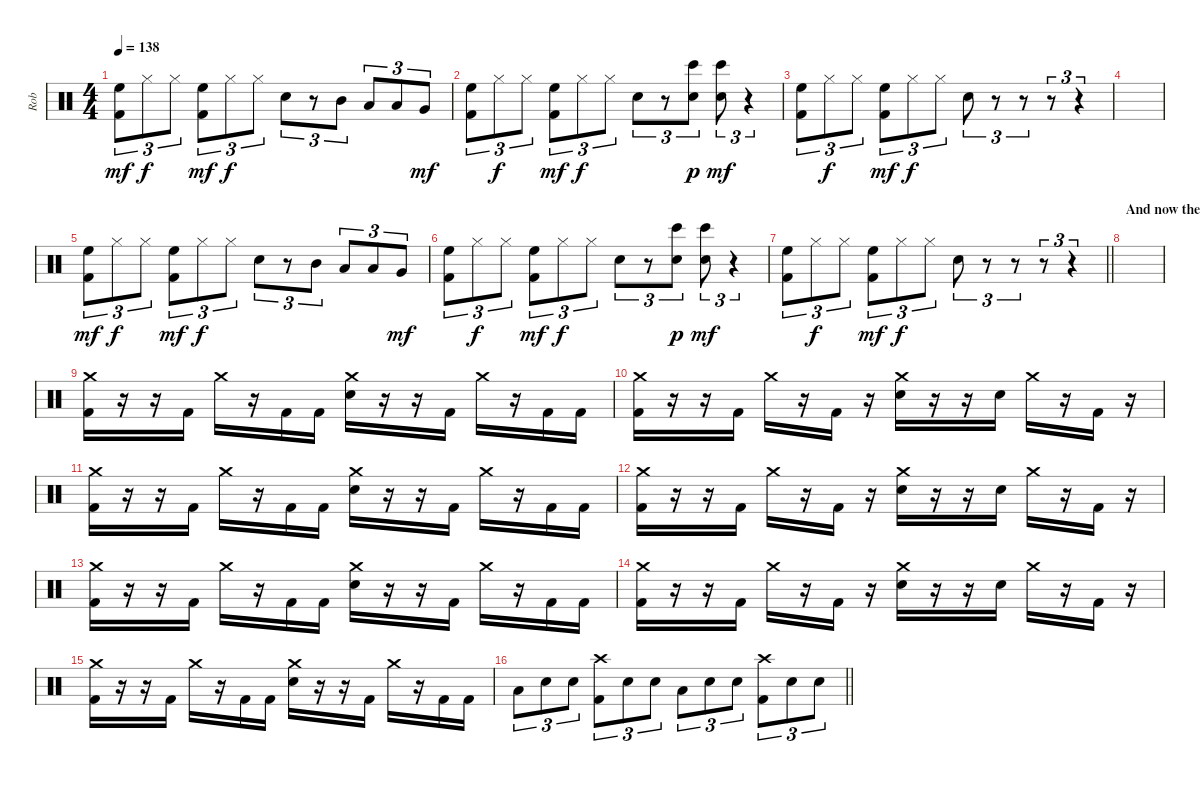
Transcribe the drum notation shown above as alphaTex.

\track ("Rob" "Rob") {instrument percussion}
\staff {score}
\articulation defaults
\ts (4 4)
\tempo 138
\clef neutral
\ks c
("High Floor Tom (hit)" "Kick (hit) 2").8{tu (3 2) dy mf} "Hi-Hat (closed)".8{tu (3 2) dy f} "Hi-Hat (closed)".8{tu (3 2)} ("High Floor Tom (hit)" "Kick (hit) 2").8{tu (3 2) dy mf} "Hi-Hat (closed)".8{tu (3 2) dy f} "Hi-Hat (closed)".8{tu (3 2)} "Electric Snare (hit)".8{tu (3 2)} r.8{tu (3 2)} "Mid Tom (hit)".8{tu (3 2)} "Low Tom (hit)".8{tu (3 2)} "Low Tom (hit)".8{tu (3 2)} "Very Low Tom (hit)".8{tu (3 2) dy mf} |
("High Floor Tom (hit)" "Kick (hit) 2").8{tu (3 2)} "Hi-Hat (closed)".8{tu (3 2) dy f} "Hi-Hat (closed)".8{tu (3 2)} ("High Floor Tom (hit)" "Kick (hit) 2").8{tu (3 2) dy mf} "Hi-Hat (closed)".8{tu (3 2) dy f} "Hi-Hat (closed)".8{tu (3 2)} "Electric Snare (hit)".8{tu (3 2)} r.8{tu (3 2)} ("Bongo High (hit)" "Electric Snare (hit)").8{tu (3 2) dy p} ("Bongo High (hit)" "Electric Snare (hit)").8{tu (3 2) dy mf} r.4{tu (3 2)} |
("High Floor Tom (hit)" "Kick (hit) 2").8{tu (3 2)} "Hi-Hat (closed)".8{tu (3 2) dy f} "Hi-Hat (closed)".8{tu (3 2)} ("High Floor Tom (hit)" "Kick (hit) 2").8{tu (3 2) dy mf} "Hi-Hat (closed)".8{tu (3 2) dy f} "Hi-Hat (closed)".8{tu (3 2)} "Electric Snare (hit)".8{tu (3 2)} r.8{tu (3 2)} r.8{tu (3 2)} r.8{tu (3 2)} r.4{tu (3 2)} |
|
("High Floor Tom (hit)" "Kick (hit) 2").8{tu (3 2) dy mf} "Hi-Hat (closed)".8{tu (3 2) dy f} "Hi-Hat (closed)".8{tu (3 2)} ("High Floor Tom (hit)" "Kick (hit) 2").8{tu (3 2) dy mf} "Hi-Hat (closed)".8{tu (3 2) dy f} "Hi-Hat (closed)".8{tu (3 2)} "Electric Snare (hit)".8{tu (3 2)} r.8{tu (3 2)} "Mid Tom (hit)".8{tu (3 2)} "Low Tom (hit)".8{tu (3 2)} "Low Tom (hit)".8{tu (3 2)} "Very Low Tom (hit)".8{tu (3 2) dy mf} |
("High Floor Tom (hit)" "Kick (hit) 2").8{tu (3 2)} "Hi-Hat (closed)".8{tu (3 2) dy f} "Hi-Hat (closed)".8{tu (3 2)} ("High Floor Tom (hit)" "Kick (hit) 2").8{tu (3 2) dy mf} "Hi-Hat (closed)".8{tu (3 2) dy f} "Hi-Hat (closed)".8{tu (3 2)} "Electric Snare (hit)".8{tu (3 2)} r.8{tu (3 2)} ("Bongo High (hit)" "Electric Snare (hit)").8{tu (3 2) dy p} ("Bongo High (hit)" "Electric Snare (hit)").8{tu (3 2) dy mf} r.4{tu (3 2)} |
\barLineRight lightlight
("High Floor Tom (hit)" "Kick (hit) 2").8{tu (3 2)} "Hi-Hat (closed)".8{tu (3 2) dy f} "Hi-Hat (closed)".8{tu (3 2)} ("High Floor Tom (hit)" "Kick (hit) 2").8{tu (3 2) dy mf} "Hi-Hat (closed)".8{tu (3 2) dy f} "Hi-Hat (closed)".8{tu (3 2)} "Electric Snare (hit)".8{tu (3 2)} r.8{tu (3 2)} r.8{tu (3 2)} r.8{tu (3 2)} r.4{tu (3 2)} |
\section ("" "And now the flood gates...")
|
("Crash medium (hit)" "Kick (hit) 2").16 r.16 r.16 "Kick (hit) 2".16 "Crash medium (hit)".16 r.16 "Kick (hit) 2".16 "Kick (hit) 2".16 ("Crash medium (hit)" "Electric Snare (hit)").16 r.16 r.16 "Kick (hit) 2".16 "Crash medium (hit)".16 r.16 "Kick (hit) 2".16 "Kick (hit) 2".16 |
("Crash medium (hit)" "Kick (hit) 2").16 r.16 r.16 "Kick (hit) 2".16 "Crash medium (hit)".16 r.16 "Kick (hit) 2".16 r.16 ("Crash medium (hit)" "Electric Snare (hit)").16 r.16 r.16 "Electric Snare (hit)".16 "Crash medium (hit)".16 r.16 "Kick (hit) 2".16 r.16 |
("Crash medium (hit)" "Kick (hit) 2").16 r.16 r.16 "Kick (hit) 2".16 "Crash medium (hit)".16 r.16 "Kick (hit) 2".16 "Kick (hit) 2".16 ("Crash medium (hit)" "Electric Snare (hit)").16 r.16 r.16 "Kick (hit) 2".16 "Crash medium (hit)".16 r.16 "Kick (hit) 2".16 "Kick (hit) 2".16 |
("Crash medium (hit)" "Kick (hit) 2").16 r.16 r.16 "Kick (hit) 2".16 "Crash medium (hit)".16 r.16 "Kick (hit) 2".16 r.16 ("Crash medium (hit)" "Electric Snare (hit)").16 r.16 r.16 "Electric Snare (hit)".16 "Crash medium (hit)".16 r.16 "Kick (hit) 2".16 r.16 |
("Crash medium (hit)" "Kick (hit) 2").16 r.16 r.16 "Kick (hit) 2".16 "Crash medium (hit)".16 r.16 "Kick (hit) 2".16 "Kick (hit) 2".16 ("Crash medium (hit)" "Electric Snare (hit)").16 r.16 r.16 "Kick (hit) 2".16 "Crash medium (hit)".16 r.16 "Kick (hit) 2".16 "Kick (hit) 2".16 |
("Crash medium (hit)" "Kick (hit) 2").16 r.16 r.16 "Kick (hit) 2".16 "Crash medium (hit)".16 r.16 "Kick (hit) 2".16 r.16 ("Crash medium (hit)" "Electric Snare (hit)").16 r.16 r.16 "Electric Snare (hit)".16 "Crash medium (hit)".16 r.16 "Kick (hit) 2".16 r.16 |
("Crash medium (hit)" "Kick (hit) 2").16 r.16 r.16 "Kick (hit) 2".16 "Crash medium (hit)".16 r.16 "Kick (hit) 2".16 "Kick (hit) 2".16 ("Crash medium (hit)" "Electric Snare (hit)").16 r.16 r.16 "Kick (hit) 2".16 "Crash medium (hit)".16 r.16 "Kick (hit) 2".16 "Kick (hit) 2".16 |
\barLineRight lightlight "Low Tom (hit)".8{tu (3 2)} "Electric Snare (hit)".8{tu (3 2)} "Electric Snare (hit)".8{tu (3 2)}
("Crash high (hit)" "Kick (hit) 2").8{tu (3 2)} "Electric Snare (hit)".8{tu (3 2)} "Electric Snare (hit)".8{tu (3 2)} "Low Tom (hit)".8{tu (3 2)} "Electric Snare (hit)".8{tu (3 2)} "Electric Snare (hit)".8{tu (3 2)} ("Crash high (hit)" "Kick (hit) 2").8{tu (3 2)} "Electric Snare (hit)".8{tu (3 2)} "Electric Snare (hit)".8{tu (3 2)}
